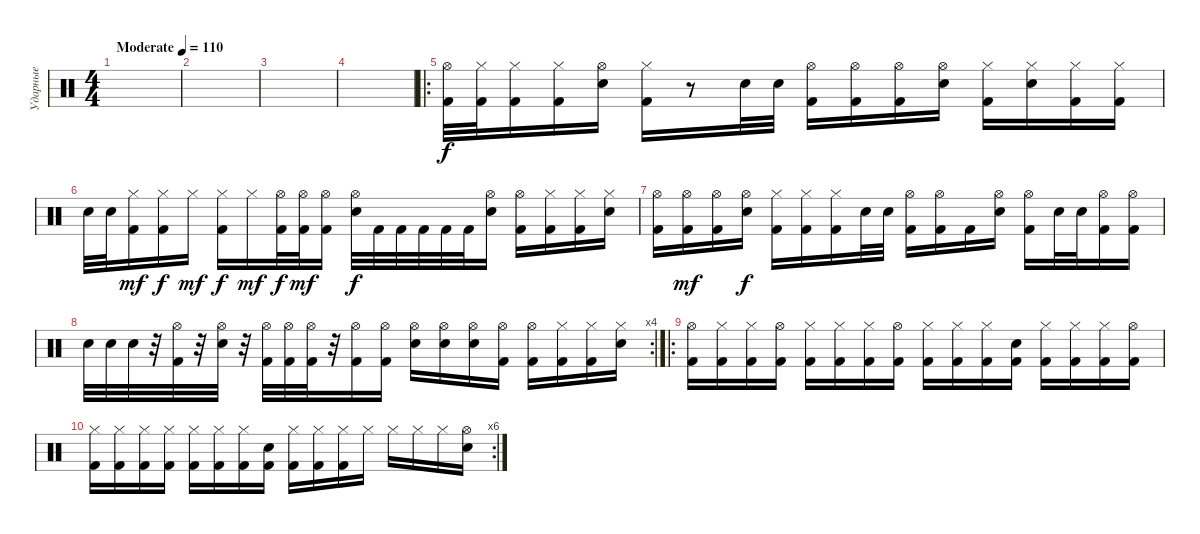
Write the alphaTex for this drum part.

\track ("Ударные" "Ударные") {instrument percussion}
\staff {score}
\articulation defaults
\ts (4 4)
\tempo (110 "Moderate")
\clef neutral
\ks c
|
|
|
|
\ro
("Hi-Hat (open)" "Kick (hit) 2").32 ("Hi-Hat (closed)" "Kick (hit) 2").32 ("Hi-Hat (closed)" "Kick (hit) 2").16 ("Hi-Hat (closed)" "Kick (hit) 2").16 ("Hi-Hat (open)" "Electric Snare (hit)").16 ("Hi-Hat (closed)" "Kick (hit) 2").16 r.8 "Electric Snare (hit)".32 "Electric Snare (hit)".32 ("Hi-Hat (open)" "Kick (hit) 2").16 ("Hi-Hat (open)" "Kick (hit) 2").16 ("Hi-Hat (open)" "Kick (hit) 2").16 ("Hi-Hat (open)" "Electric Snare (hit)").16 ("Hi-Hat (closed)" "Kick (hit) 2").16 ("Hi-Hat (closed)" "Electric Snare (hit)").16 ("Hi-Hat (closed)" "Kick (hit) 2").16 ("Hi-Hat (closed)" "Kick (hit) 2").16 |
"Electric Snare (hit)".32 "Electric Snare (hit)".32 ("Hi-Hat (closed)" "Kick (hit) 2").16{dy mf} ("Hi-Hat (closed)" "Kick (hit) 2").16{dy f} "Hi-Hat (closed)".16{dy mf} ("Hi-Hat (closed)" "Kick (hit) 2").16{dy f} "Hi-Hat (closed)".16{dy mf} ("Hi-Hat (open)" "Kick (hit) 2").32{dy f} ("Hi-Hat (open)" "Kick (hit) 2").32{dy mf} ("Hi-Hat (open)" "Kick (hit) 2").16 ("Hi-Hat (open)" "Electric Snare (hit)").32{dy f} "Kick (hit) 2".32 "Kick (hit) 2".32 "Kick (hit) 2".32 "Kick (hit) 2".32 "Kick (hit) 2".32 ("Hi-Hat (open)" "Electric Snare (hit)").16 ("Hi-Hat (open)" "Kick (hit) 2").16 ("Hi-Hat (closed)" "Kick (hit) 2").16 ("Hi-Hat (closed)" "Kick (hit) 2").16 ("Hi-Hat (closed)" "Electric Snare (hit)").16 |
("Hi-Hat (open)" "Kick (hit) 2").16 ("Hi-Hat (open)" "Kick (hit) 2").16{dy mf} ("Hi-Hat (open)" "Kick (hit) 2").16 ("Hi-Hat (open)" "Electric Snare (hit)").16{dy f} ("Hi-Hat (closed)" "Kick (hit) 2").16 ("Hi-Hat (closed)" "Kick (hit) 2").16 ("Hi-Hat (closed)" "Kick (hit) 2").16 "Electric Snare (hit)".32 "Electric Snare (hit)".32 ("Hi-Hat (open)" "Kick (hit) 2").16 ("Hi-Hat (open)" "Kick (hit) 2").16 "Kick (hit) 2".16 ("Hi-Hat (open)" "Electric Snare (hit)").16 ("Hi-Hat (open)" "Kick (hit) 2").16 "Electric Snare (hit)".32 "Electric Snare (hit)".32 ("Hi-Hat (open)" "Kick (hit) 2").16 ("Hi-Hat (open)" "Kick (hit) 2").16 |
\rc 4 "Electric Snare (hit)".32 "Electric Snare (hit)".32 "Electric Snare (hit)".32
r.32 ("Hi-Hat (open)" "Kick (hit) 2").32 r.32 ("Hi-Hat (open)" "Electric Snare (hit)").32 r.32 ("Hi-Hat (open)" "Kick (hit) 2").32 ("Hi-Hat (open)" "Kick (hit) 2").32 ("Hi-Hat (open)" "Kick (hit) 2").32 r.32 ("Hi-Hat (open)" "Kick (hit) 2").16 ("Hi-Hat (open)" "Kick (hit) 2").16 ("Hi-Hat (open)" "Electric Snare (hit)").16 ("Hi-Hat (open)" "Electric Snare (hit)").16 ("Hi-Hat (open)" "Electric Snare (hit)").16 ("Hi-Hat (open)" "Kick (hit) 2").16 ("Hi-Hat (open)" "Kick (hit) 2").16 ("Hi-Hat (closed)" "Kick (hit) 2").16 ("Hi-Hat (closed)" "Kick (hit) 2").16 ("Hi-Hat (closed)" "Electric Snare (hit)").16 |
\ro
("Hi-Hat (open)" "Kick (hit) 2").16 ("Hi-Hat (closed)" "Kick (hit) 2").16 ("Hi-Hat (closed)" "Kick (hit) 2").16 ("Hi-Hat (open)" "Kick (hit) 2").16 ("Hi-Hat (closed)" "Kick (hit) 2").16 ("Hi-Hat (closed)" "Kick (hit) 2").16 ("Hi-Hat (closed)" "Kick (hit) 2").16 ("Hi-Hat (open)" "Kick (hit) 2").16 ("Hi-Hat (closed)" "Kick (hit) 2").16 ("Hi-Hat (closed)" "Kick (hit) 2").16 ("Hi-Hat (closed)" "Kick (hit) 2").16 ("Electric Snare (hit)" "Kick (hit) 2").16 ("Hi-Hat (closed)" "Kick (hit) 2").16 ("Hi-Hat (closed)" "Kick (hit) 2").16 ("Hi-Hat (closed)" "Kick (hit) 2").16 ("Hi-Hat (open)" "Kick (hit) 2").16 |
\rc 6
("Hi-Hat (closed)" "Kick (hit) 2").16 ("Hi-Hat (closed)" "Kick (hit) 2").16 ("Hi-Hat (closed)" "Kick (hit) 2").16 ("Hi-Hat (closed)" "Kick (hit) 2").16 ("Hi-Hat (closed)" "Kick (hit) 2").16 ("Hi-Hat (closed)" "Kick (hit) 2").16 ("Hi-Hat (closed)" "Kick (hit) 2").16 ("Electric Snare (hit)" "Kick (hit) 2").16 ("Hi-Hat (closed)" "Kick (hit) 2").16 ("Hi-Hat (closed)" "Kick (hit) 2").16 ("Hi-Hat (closed)" "Kick (hit) 2").16 "Hi-Hat (closed)".16 "Hi-Hat (closed)".16 "Hi-Hat (closed)".16 "Hi-Hat (closed)".16 ("Hi-Hat (open)" "Electric Snare (hit)").16
